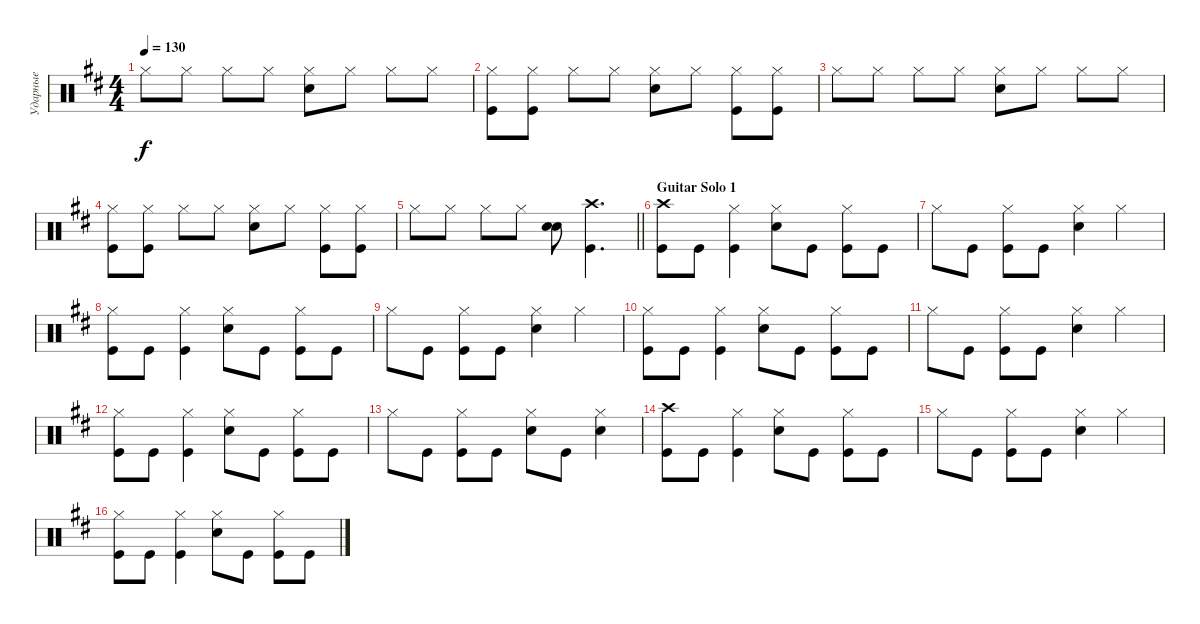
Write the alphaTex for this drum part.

\track ("Ударные" "Ударные") {instrument percussion}
\staff {score}
\articulation defaults
\ts (4 4)
\tempo 130
\clef neutral
\ks bminor "Hi-Hat (closed)".8{dy f} "Hi-Hat (closed)".8 "Hi-Hat (closed)".8 "Hi-Hat (closed)".8
("Hi-Hat (closed)" "Snare (hit) 2").8 "Hi-Hat (closed)".8 "Hi-Hat (closed)".8 "Hi-Hat (closed)".8 |
("Hi-Hat (closed)" "Kick (hit)").8 ("Hi-Hat (closed)" "Kick (hit)").8 "Hi-Hat (closed)".8 "Hi-Hat (closed)".8 ("Hi-Hat (closed)" "Snare (hit) 2").8 "Hi-Hat (closed)".8 ("Hi-Hat (closed)" "Kick (hit)").8 ("Hi-Hat (closed)" "Kick (hit)").8 |
"Hi-Hat (closed)".8 "Hi-Hat (closed)".8 "Hi-Hat (closed)".8 "Hi-Hat (closed)".8 ("Hi-Hat (closed)" "Snare (hit) 2").8 "Hi-Hat (closed)".8 "Hi-Hat (closed)".8 "Hi-Hat (closed)".8 |
("Hi-Hat (closed)" "Kick (hit)").8 ("Hi-Hat (closed)" "Kick (hit)").8 "Hi-Hat (closed)".8 "Hi-Hat (closed)".8 ("Hi-Hat (closed)" "Snare (hit) 2").8 "Hi-Hat (closed)".8 ("Hi-Hat (closed)" "Kick (hit)").8 ("Hi-Hat (closed)" "Kick (hit)").8 |
\barLineRight lightlight "Hi-Hat (closed)".8 "Hi-Hat (closed)".8 "Hi-Hat (closed)".8 "Hi-Hat (closed)".8
("Snare (hit) 2" "Snare (hit) 2").8{bd 240} ("Kick (hit)" "Crash high (hit)").4{d} |
\section ("" "Guitar Solo 1")
("Kick (hit)" "Crash high (hit)").8 "Kick (hit)".8 ("Kick (hit)" "Hi-Hat (closed)").4 ("Snare (hit) 2" "Hi-Hat (closed)").8 "Kick (hit)".8 ("Kick (hit)" "Hi-Hat (closed)").8 "Kick (hit)".8 |
"Hi-Hat (closed)".8 "Kick (hit)".8 ("Kick (hit)" "Hi-Hat (closed)").8 "Kick (hit)".8 ("Snare (hit) 2" "Hi-Hat (closed)").4 "Hi-Hat (closed)".4 |
("Kick (hit)" "Hi-Hat (closed)").8 "Kick (hit)".8 ("Kick (hit)" "Hi-Hat (closed)").4 ("Snare (hit) 2" "Hi-Hat (closed)").8 "Kick (hit)".8 ("Kick (hit)" "Hi-Hat (closed)").8 "Kick (hit)".8 |
"Hi-Hat (closed)".8 "Kick (hit)".8 ("Kick (hit)" "Hi-Hat (closed)").8 "Kick (hit)".8 ("Snare (hit) 2" "Hi-Hat (closed)").4 "Hi-Hat (closed)".4 |
("Kick (hit)" "Hi-Hat (closed)").8 "Kick (hit)".8 ("Kick (hit)" "Hi-Hat (closed)").4 ("Snare (hit) 2" "Hi-Hat (closed)").8 "Kick (hit)".8 ("Kick (hit)" "Hi-Hat (closed)").8 "Kick (hit)".8 |
"Hi-Hat (closed)".8 "Kick (hit)".8 ("Kick (hit)" "Hi-Hat (closed)").8 "Kick (hit)".8 ("Snare (hit) 2" "Hi-Hat (closed)").4 "Hi-Hat (closed)".4 |
("Kick (hit)" "Hi-Hat (closed)").8 "Kick (hit)".8 ("Kick (hit)" "Hi-Hat (closed)").4 ("Snare (hit) 2" "Hi-Hat (closed)").8 "Kick (hit)".8 ("Kick (hit)" "Hi-Hat (closed)").8 "Kick (hit)".8 |
"Hi-Hat (closed)".8 "Kick (hit)".8 ("Kick (hit)" "Hi-Hat (closed)").8 "Kick (hit)".8 ("Snare (hit) 2" "Hi-Hat (closed)").8 "Kick (hit)".8 ("Hi-Hat (closed)" "Snare (hit) 2").4 |
("Kick (hit)" "Crash high (hit)").8 "Kick (hit)".8 ("Kick (hit)" "Hi-Hat (closed)").4 ("Snare (hit) 2" "Hi-Hat (closed)").8 "Kick (hit)".8 ("Kick (hit)" "Hi-Hat (closed)").8 "Kick (hit)".8 |
"Hi-Hat (closed)".8 "Kick (hit)".8 ("Kick (hit)" "Hi-Hat (closed)").8 "Kick (hit)".8 ("Snare (hit) 2" "Hi-Hat (closed)").4 "Hi-Hat (closed)".4 |
("Kick (hit)" "Hi-Hat (closed)").8 "Kick (hit)".8 ("Kick (hit)" "Hi-Hat (closed)").4 ("Snare (hit) 2" "Hi-Hat (closed)").8 "Kick (hit)".8 ("Kick (hit)" "Hi-Hat (closed)").8 "Kick (hit)".8
